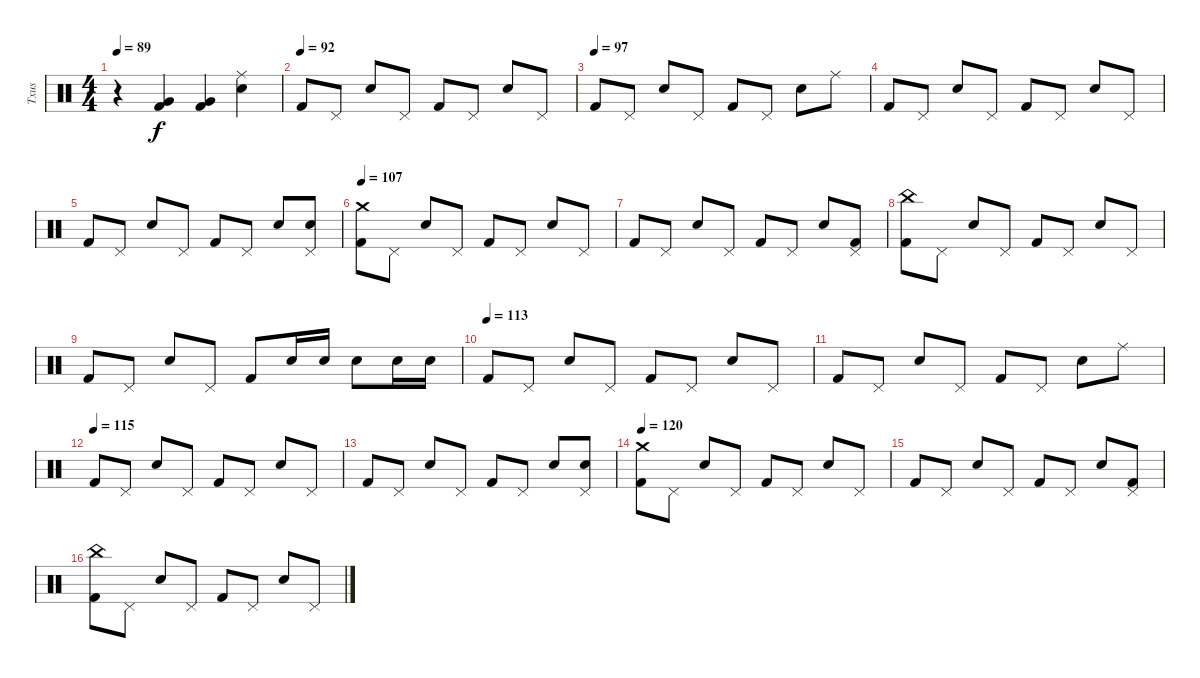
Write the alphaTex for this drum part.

\track ("Txus" "Txus") {instrument percussion}
\staff {score}
\articulation defaults
\ts (4 4)
\tempo 89
\clef neutral
\ks c
r.4{dy f} ("Kick (hit) 2" "Very Low Tom (hit)").4{volume 16} ("Kick (hit) 2" "Very Low Tom (hit)").4 ("Electric Snare (hit)" "Ride (middle)").4 |
\section ("" "")
\tempo (92)
"Kick (hit) 2".8 "Pedal Hi-Hat (hit)".8 "Electric Snare (hit)".8 "Pedal Hi-Hat (hit)".8 "Kick (hit) 2".8 "Pedal Hi-Hat (hit)".8 "Electric Snare (hit)".8 "Pedal Hi-Hat (hit)".8 |
\tempo (97)
"Kick (hit) 2".8 "Pedal Hi-Hat (hit)".8 "Electric Snare (hit)".8 "Pedal Hi-Hat (hit)".8 "Kick (hit) 2".8 "Pedal Hi-Hat (hit)".8 "Electric Snare (hit)".8 "Ride (middle)".8 |
"Kick (hit) 2".8 "Pedal Hi-Hat (hit)".8 "Electric Snare (hit)".8 "Pedal Hi-Hat (hit)".8 "Kick (hit) 2".8 "Pedal Hi-Hat (hit)".8 "Electric Snare (hit)".8 "Pedal Hi-Hat (hit)".8 |
"Kick (hit) 2".8 "Pedal Hi-Hat (hit)".8 "Electric Snare (hit)".8 "Pedal Hi-Hat (hit)".8 "Kick (hit) 2".8 "Pedal Hi-Hat (hit)".8 "Electric Snare (hit)".8 ("Electric Snare (hit)" "Pedal Hi-Hat (hit)").8 |
\tempo 107
("Kick (hit) 2" "Crash medium (hit)").8 "Pedal Hi-Hat (hit)".8 "Electric Snare (hit)".8 "Pedal Hi-Hat (hit)".8 "Kick (hit) 2".8 "Pedal Hi-Hat (hit)".8 "Electric Snare (hit)".8 "Pedal Hi-Hat (hit)".8 |
"Kick (hit) 2".8 "Pedal Hi-Hat (hit)".8 "Electric Snare (hit)".8 "Pedal Hi-Hat (hit)".8 "Kick (hit) 2".8 "Pedal Hi-Hat (hit)".8 "Electric Snare (hit)".8 ("Kick (hit) 2" "Pedal Hi-Hat (hit)").8 |
("Kick (hit) 2" "China (hit)").8 "Pedal Hi-Hat (hit)".8 "Electric Snare (hit)".8 "Pedal Hi-Hat (hit)".8 "Kick (hit) 2".8 "Pedal Hi-Hat (hit)".8 "Electric Snare (hit)".8 "Pedal Hi-Hat (hit)".8 |
"Kick (hit) 2".8 "Pedal Hi-Hat (hit)".8 "Electric Snare (hit)".8 "Pedal Hi-Hat (hit)".8 "Kick (hit) 2".8 "Electric Snare (hit)".16 "Electric Snare (hit)".16 "Electric Snare (hit)".8 "Electric Snare (hit)".16 "Electric Snare (hit)".16 |
\section ("" "")
\tempo (113)
"Kick (hit) 2".8 "Pedal Hi-Hat (hit)".8 "Electric Snare (hit)".8 "Pedal Hi-Hat (hit)".8 "Kick (hit) 2".8 "Pedal Hi-Hat (hit)".8 "Electric Snare (hit)".8 "Pedal Hi-Hat (hit)".8 |
"Kick (hit) 2".8 "Pedal Hi-Hat (hit)".8 "Electric Snare (hit)".8 "Pedal Hi-Hat (hit)".8 "Kick (hit) 2".8 "Pedal Hi-Hat (hit)".8 "Electric Snare (hit)".8 "Ride (middle)".8 |
\tempo (115)
"Kick (hit) 2".8 "Pedal Hi-Hat (hit)".8 "Electric Snare (hit)".8 "Pedal Hi-Hat (hit)".8 "Kick (hit) 2".8 "Pedal Hi-Hat (hit)".8 "Electric Snare (hit)".8 "Pedal Hi-Hat (hit)".8 |
"Kick (hit) 2".8 "Pedal Hi-Hat (hit)".8 "Electric Snare (hit)".8 "Pedal Hi-Hat (hit)".8 "Kick (hit) 2".8 "Pedal Hi-Hat (hit)".8 "Electric Snare (hit)".8 ("Electric Snare (hit)" "Pedal Hi-Hat (hit)").8 |
\tempo 120
("Kick (hit) 2" "Crash medium (hit)").8 "Pedal Hi-Hat (hit)".8 "Electric Snare (hit)".8 "Pedal Hi-Hat (hit)".8 "Kick (hit) 2".8 "Pedal Hi-Hat (hit)".8 "Electric Snare (hit)".8 "Pedal Hi-Hat (hit)".8 |
"Kick (hit) 2".8 "Pedal Hi-Hat (hit)".8 "Electric Snare (hit)".8 "Pedal Hi-Hat (hit)".8 "Kick (hit) 2".8 "Pedal Hi-Hat (hit)".8 "Electric Snare (hit)".8 ("Kick (hit) 2" "Pedal Hi-Hat (hit)").8 |
("Kick (hit) 2" "China (hit)").8 "Pedal Hi-Hat (hit)".8 "Electric Snare (hit)".8 "Pedal Hi-Hat (hit)".8 "Kick (hit) 2".8 "Pedal Hi-Hat (hit)".8 "Electric Snare (hit)".8 "Pedal Hi-Hat (hit)".8
